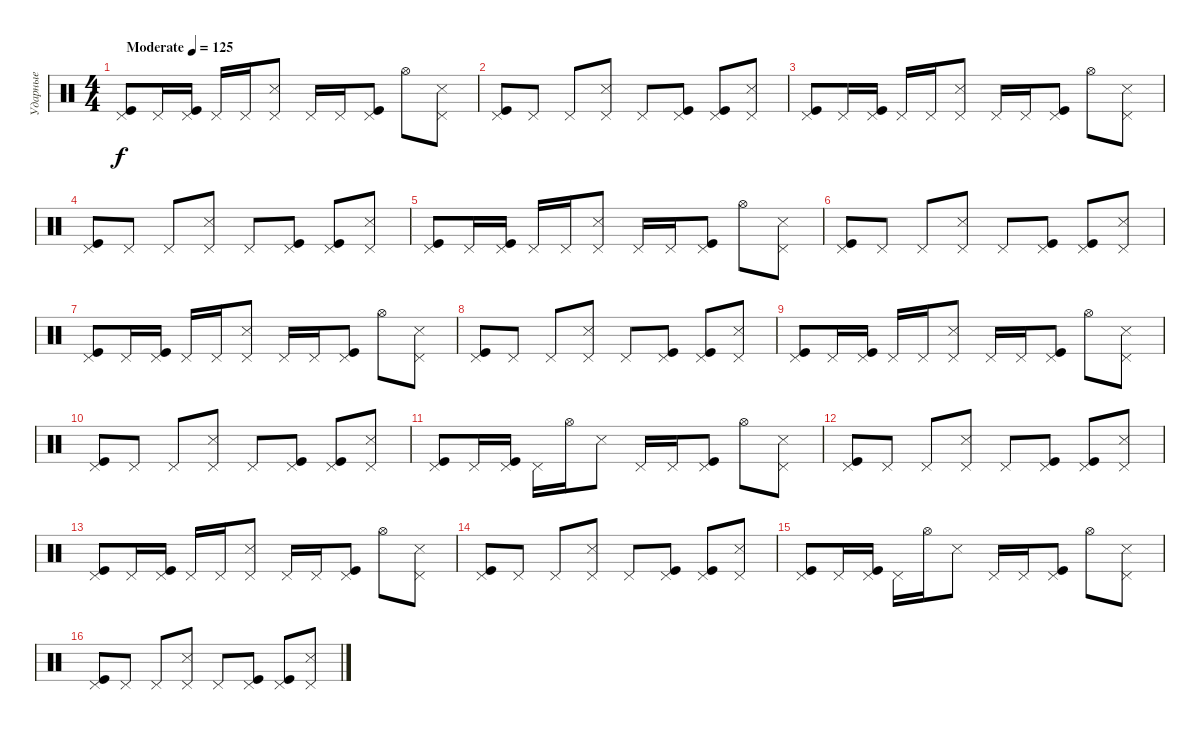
\track ("Ударные" "Ударные") {instrument percussion}
\staff {score}
\articulation defaults
\ts (4 4)
\tempo (125 "Moderate")
\clef neutral
\ks c
("Pedal Hi-Hat (hit)" "Kick (hit)").8{dy f} "Pedal Hi-Hat (hit)".16 ("Pedal Hi-Hat (hit)" "Kick (hit)").16 "Pedal Hi-Hat (hit)".16 "Pedal Hi-Hat (hit)".16 ("Pedal Hi-Hat (hit)" "Snare (side stick) 3").8 "Pedal Hi-Hat (hit)".16 "Pedal Hi-Hat (hit)".16 ("Pedal Hi-Hat (hit)" "Kick (hit)").8 "Hi-Hat (open)".8 ("Pedal Hi-Hat (hit)" "Snare (side stick) 3").8 |
("Pedal Hi-Hat (hit)" "Kick (hit)").8 "Pedal Hi-Hat (hit)".8 "Pedal Hi-Hat (hit)".8 ("Pedal Hi-Hat (hit)" "Snare (side stick) 3").8 "Pedal Hi-Hat (hit)".8 ("Pedal Hi-Hat (hit)" "Kick (hit)").8 ("Pedal Hi-Hat (hit)" "Kick (hit)").8 ("Pedal Hi-Hat (hit)" "Snare (side stick) 3").8 |
("Pedal Hi-Hat (hit)" "Kick (hit)").8 "Pedal Hi-Hat (hit)".16 ("Pedal Hi-Hat (hit)" "Kick (hit)").16 "Pedal Hi-Hat (hit)".16 "Pedal Hi-Hat (hit)".16 ("Pedal Hi-Hat (hit)" "Snare (side stick) 3").8 "Pedal Hi-Hat (hit)".16 "Pedal Hi-Hat (hit)".16 ("Pedal Hi-Hat (hit)" "Kick (hit)").8 "Hi-Hat (open)".8 ("Pedal Hi-Hat (hit)" "Snare (side stick) 3").8 |
("Pedal Hi-Hat (hit)" "Kick (hit)").8 "Pedal Hi-Hat (hit)".8 "Pedal Hi-Hat (hit)".8 ("Pedal Hi-Hat (hit)" "Snare (side stick) 3").8 "Pedal Hi-Hat (hit)".8 ("Pedal Hi-Hat (hit)" "Kick (hit)").8 ("Pedal Hi-Hat (hit)" "Kick (hit)").8 ("Pedal Hi-Hat (hit)" "Snare (side stick) 3").8 |
("Pedal Hi-Hat (hit)" "Kick (hit)").8 "Pedal Hi-Hat (hit)".16 ("Pedal Hi-Hat (hit)" "Kick (hit)").16 "Pedal Hi-Hat (hit)".16 "Pedal Hi-Hat (hit)".16 ("Pedal Hi-Hat (hit)" "Snare (side stick) 3").8 "Pedal Hi-Hat (hit)".16 "Pedal Hi-Hat (hit)".16 ("Pedal Hi-Hat (hit)" "Kick (hit)").8 "Hi-Hat (open)".8 ("Pedal Hi-Hat (hit)" "Snare (side stick) 3").8 |
("Pedal Hi-Hat (hit)" "Kick (hit)").8 "Pedal Hi-Hat (hit)".8 "Pedal Hi-Hat (hit)".8 ("Pedal Hi-Hat (hit)" "Snare (side stick) 3").8 "Pedal Hi-Hat (hit)".8 ("Pedal Hi-Hat (hit)" "Kick (hit)").8 ("Pedal Hi-Hat (hit)" "Kick (hit)").8 ("Pedal Hi-Hat (hit)" "Snare (side stick) 3").8 |
("Pedal Hi-Hat (hit)" "Kick (hit)").8 "Pedal Hi-Hat (hit)".16 ("Pedal Hi-Hat (hit)" "Kick (hit)").16 "Pedal Hi-Hat (hit)".16 "Pedal Hi-Hat (hit)".16 ("Pedal Hi-Hat (hit)" "Snare (side stick) 3").8 "Pedal Hi-Hat (hit)".16 "Pedal Hi-Hat (hit)".16 ("Pedal Hi-Hat (hit)" "Kick (hit)").8 "Hi-Hat (open)".8 ("Pedal Hi-Hat (hit)" "Snare (side stick) 3").8 |
("Pedal Hi-Hat (hit)" "Kick (hit)").8 "Pedal Hi-Hat (hit)".8 "Pedal Hi-Hat (hit)".8 ("Pedal Hi-Hat (hit)" "Snare (side stick) 3").8 "Pedal Hi-Hat (hit)".8 ("Pedal Hi-Hat (hit)" "Kick (hit)").8 ("Pedal Hi-Hat (hit)" "Kick (hit)").8 ("Pedal Hi-Hat (hit)" "Snare (side stick) 3").8 |
("Pedal Hi-Hat (hit)" "Kick (hit)").8 "Pedal Hi-Hat (hit)".16 ("Pedal Hi-Hat (hit)" "Kick (hit)").16 "Pedal Hi-Hat (hit)".16 "Pedal Hi-Hat (hit)".16 ("Pedal Hi-Hat (hit)" "Snare (side stick) 3").8 "Pedal Hi-Hat (hit)".16 "Pedal Hi-Hat (hit)".16 ("Pedal Hi-Hat (hit)" "Kick (hit)").8 "Hi-Hat (open)".8 ("Pedal Hi-Hat (hit)" "Snare (side stick) 3").8 |
("Pedal Hi-Hat (hit)" "Kick (hit)").8 "Pedal Hi-Hat (hit)".8 "Pedal Hi-Hat (hit)".8 ("Pedal Hi-Hat (hit)" "Snare (side stick) 3").8 "Pedal Hi-Hat (hit)".8 ("Pedal Hi-Hat (hit)" "Kick (hit)").8 ("Pedal Hi-Hat (hit)" "Kick (hit)").8 ("Pedal Hi-Hat (hit)" "Snare (side stick) 3").8 |
("Pedal Hi-Hat (hit)" "Kick (hit)").8 "Pedal Hi-Hat (hit)".16 ("Pedal Hi-Hat (hit)" "Kick (hit)").16 "Pedal Hi-Hat (hit)".16 "Hi-Hat (open)".16 "Snare (side stick) 3".8 "Pedal Hi-Hat (hit)".16 "Pedal Hi-Hat (hit)".16 ("Pedal Hi-Hat (hit)" "Kick (hit)").8 "Hi-Hat (open)".8 ("Pedal Hi-Hat (hit)" "Snare (side stick) 3").8 |
("Pedal Hi-Hat (hit)" "Kick (hit)").8 "Pedal Hi-Hat (hit)".8 "Pedal Hi-Hat (hit)".8 ("Pedal Hi-Hat (hit)" "Snare (side stick) 3").8 "Pedal Hi-Hat (hit)".8 ("Pedal Hi-Hat (hit)" "Kick (hit)").8 ("Pedal Hi-Hat (hit)" "Kick (hit)").8 ("Pedal Hi-Hat (hit)" "Snare (side stick) 3").8 |
("Pedal Hi-Hat (hit)" "Kick (hit)").8 "Pedal Hi-Hat (hit)".16 ("Pedal Hi-Hat (hit)" "Kick (hit)").16 "Pedal Hi-Hat (hit)".16 "Pedal Hi-Hat (hit)".16 ("Pedal Hi-Hat (hit)" "Snare (side stick) 3").8 "Pedal Hi-Hat (hit)".16 "Pedal Hi-Hat (hit)".16 ("Pedal Hi-Hat (hit)" "Kick (hit)").8 "Hi-Hat (open)".8 ("Pedal Hi-Hat (hit)" "Snare (side stick) 3").8 |
("Pedal Hi-Hat (hit)" "Kick (hit)").8 "Pedal Hi-Hat (hit)".8 "Pedal Hi-Hat (hit)".8 ("Pedal Hi-Hat (hit)" "Snare (side stick) 3").8 "Pedal Hi-Hat (hit)".8 ("Pedal Hi-Hat (hit)" "Kick (hit)").8 ("Pedal Hi-Hat (hit)" "Kick (hit)").8 ("Pedal Hi-Hat (hit)" "Snare (side stick) 3").8 |
("Pedal Hi-Hat (hit)" "Kick (hit)").8 "Pedal Hi-Hat (hit)".16 ("Pedal Hi-Hat (hit)" "Kick (hit)").16 "Pedal Hi-Hat (hit)".16 "Hi-Hat (open)".16 "Snare (side stick) 3".8 "Pedal Hi-Hat (hit)".16 "Pedal Hi-Hat (hit)".16 ("Pedal Hi-Hat (hit)" "Kick (hit)").8 "Hi-Hat (open)".8 ("Pedal Hi-Hat (hit)" "Snare (side stick) 3").8 |
("Pedal Hi-Hat (hit)" "Kick (hit)").8 "Pedal Hi-Hat (hit)".8 "Pedal Hi-Hat (hit)".8 ("Pedal Hi-Hat (hit)" "Snare (side stick) 3").8 "Pedal Hi-Hat (hit)".8 ("Pedal Hi-Hat (hit)" "Kick (hit)").8 ("Pedal Hi-Hat (hit)" "Kick (hit)").8 ("Pedal Hi-Hat (hit)" "Snare (side stick) 3").8
